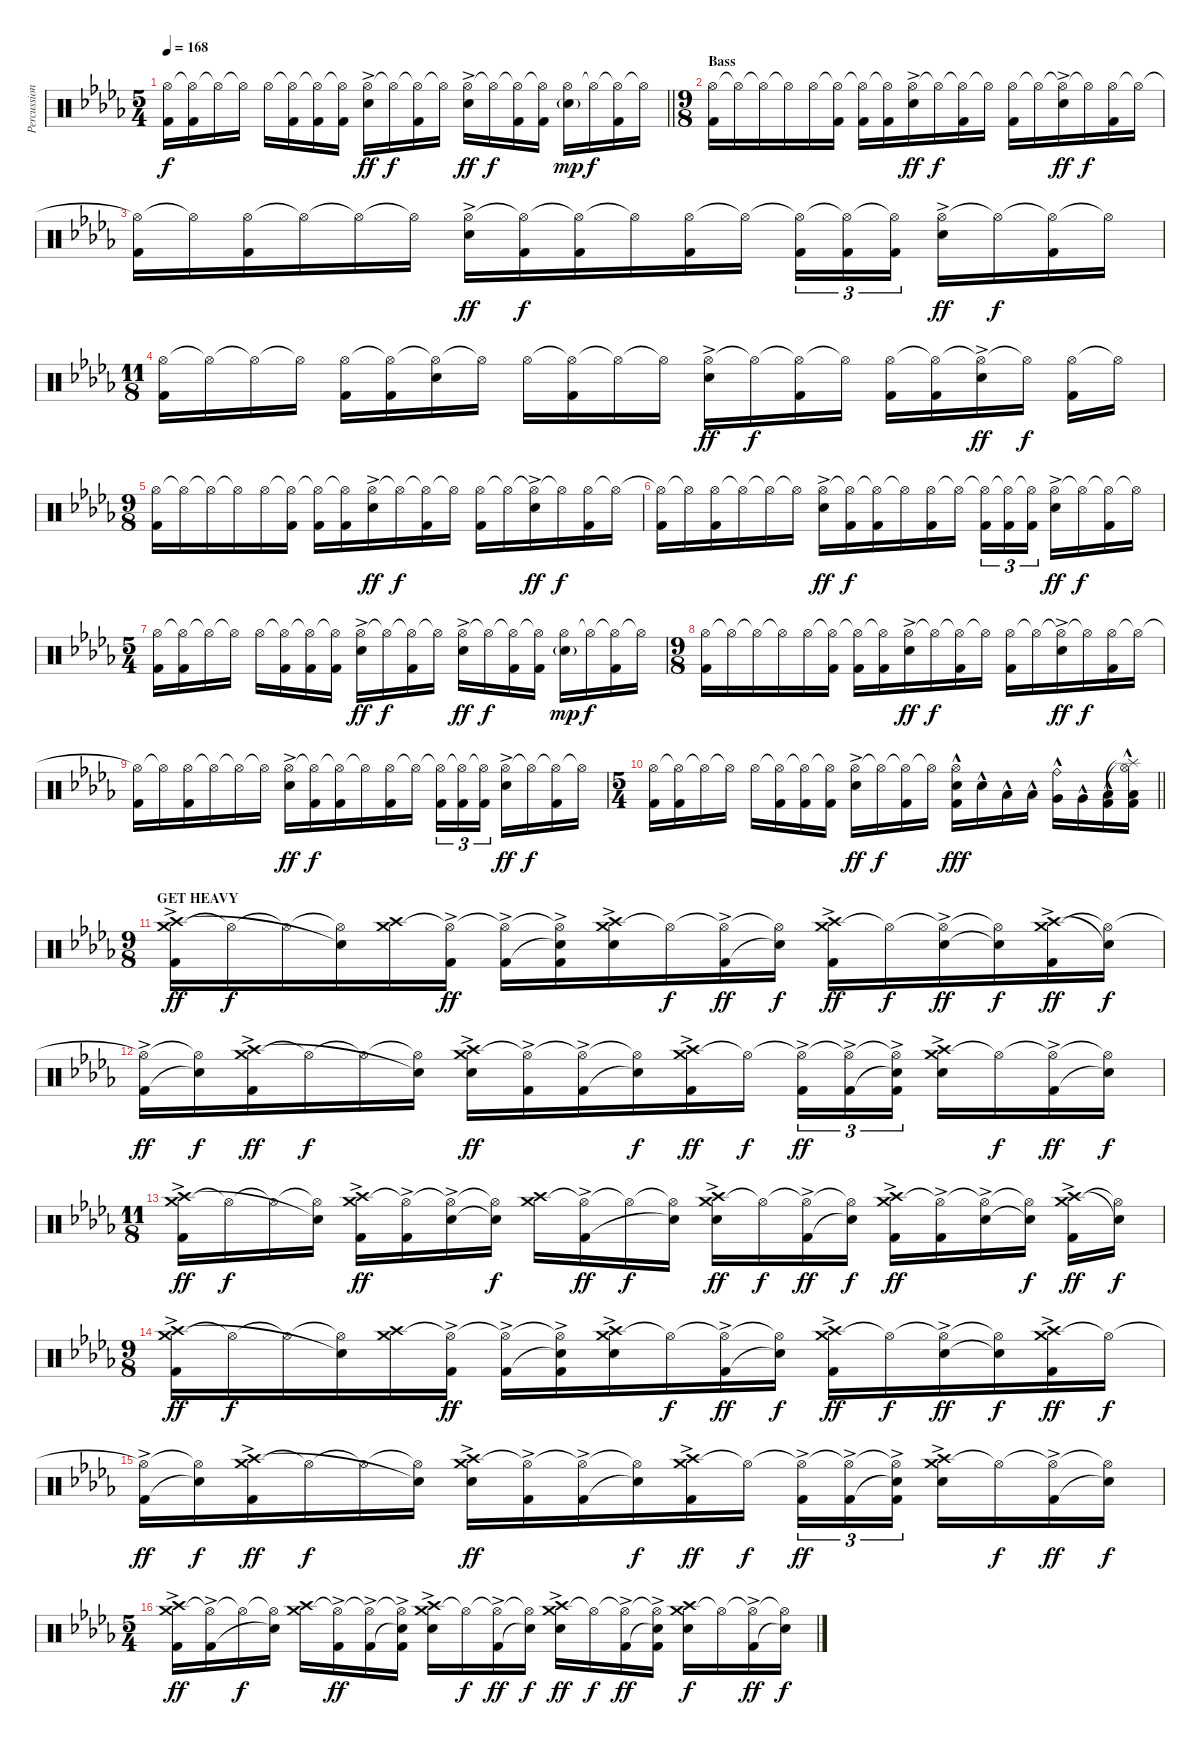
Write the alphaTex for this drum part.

\track ("Percussion" "Percussion") {instrument percussion}
\staff {score}
\articulation defaults
\ts (5 4)
\tempo 168
\clef neutral
\barLineRight lightlight
\ks bbminor
("Hi-Hat (open)" "Kick (hit) 2").16{dy f} ("Hi-Hat (open)"{t} "Kick (hit) 2").16 "Hi-Hat (open)"{t}.16 "Hi-Hat (open)"{t}.16 "Hi-Hat (open)".16 ("Hi-Hat (open)"{t} "Kick (hit) 2").16 ("Hi-Hat (open)"{t} "Kick (hit) 2").16 ("Hi-Hat (open)"{t} "Kick (hit) 2").16 ("Hi-Hat (open)" "Snare (hit) 2"{ac}).16{dy ff} "Hi-Hat (open)"{t}.16{dy f} ("Hi-Hat (open)"{t} "Kick (hit) 2").16 "Hi-Hat (open)"{t}.16 ("Hi-Hat (open)" "Snare (hit) 2"{ac}).16{dy ff} "Hi-Hat (open)"{t}.16{dy f} ("Hi-Hat (open)"{t} "Kick (hit) 2").16 ("Hi-Hat (open)"{t} "Kick (hit) 2").16 ("Hi-Hat (open)" "Snare (hit) 2"{g}).16{dy mp} "Hi-Hat (open)"{t}.16{dy f} ("Hi-Hat (open)"{t} "Kick (hit) 2").16 "Hi-Hat (open)"{t}.16 |
\ts (9 8)
\section ("" "Bass")
("Hi-Hat (open)" "Kick (hit) 2").16 "Hi-Hat (open)"{t}.16 "Hi-Hat (open)"{t}.16 "Hi-Hat (open)"{t}.16 "Hi-Hat (open)".16 ("Hi-Hat (open)"{t} "Kick (hit) 2").16 ("Hi-Hat (open)"{t} "Kick (hit) 2").16 ("Hi-Hat (open)"{t} "Kick (hit) 2").16 ("Hi-Hat (open)" "Snare (hit) 2"{ac}).16{dy ff} "Hi-Hat (open)"{t}.16{dy f} ("Hi-Hat (open)"{t} "Kick (hit) 2").16 "Hi-Hat (open)"{t}.16 ("Hi-Hat (open)" "Kick (hit) 2").16 "Hi-Hat (open)"{t}.16 ("Hi-Hat (open)"{t} "Snare (hit) 2"{ac}).16{dy ff} "Hi-Hat (open)"{t}.16{dy f} ("Hi-Hat (open)" "Kick (hit) 2").16 "Hi-Hat (open)"{t}.16 |
("Hi-Hat (open)"{t} "Kick (hit) 2").16 "Hi-Hat (open)"{t}.16 ("Hi-Hat (open)" "Kick (hit) 2").16 "Hi-Hat (open)"{t}.16 "Hi-Hat (open)"{t}.16 "Hi-Hat (open)"{t}.16 ("Hi-Hat (open)" "Snare (hit) 2"{ac}).16{dy ff} ("Hi-Hat (open)"{t} "Kick (hit) 2").16{dy f} ("Hi-Hat (open)"{t} "Kick (hit) 2").16 "Hi-Hat (open)"{t}.16 ("Hi-Hat (open)" "Kick (hit) 2").16 "Hi-Hat (open)"{t}.16 ("Hi-Hat (open)"{t} "Kick (hit) 2").16{tu (3 2)} ("Hi-Hat (open)"{t} "Kick (hit) 2").16{tu (3 2)} ("Hi-Hat (open)"{t} "Kick (hit) 2").16{tu (3 2) beam splitsecondary} ("Hi-Hat (open)" "Snare (hit) 2"{ac}).16{dy ff} "Hi-Hat (open)"{t}.16{dy f} ("Hi-Hat (open)"{t} "Kick (hit) 2").16 "Hi-Hat (open)"{t}.16 |
\ts (11 8)
("Hi-Hat (open)" "Kick (hit) 2").16 "Hi-Hat (open)"{t}.16 "Hi-Hat (open)"{t}.16 "Hi-Hat (open)"{t}.16 ("Hi-Hat (open)" "Kick (hit) 2").16 ("Hi-Hat (open)"{t} "Kick (hit) 2").16 ("Hi-Hat (open)"{t} "Snare (hit) 2").16 "Hi-Hat (open)"{t}.16 "Hi-Hat (open)".16 ("Hi-Hat (open)"{t} "Kick (hit) 2").16 "Hi-Hat (open)"{t}.16 "Hi-Hat (open)"{t}.16 ("Hi-Hat (open)" "Snare (hit) 2"{ac}).16{dy ff} "Hi-Hat (open)"{t}.16{dy f} ("Hi-Hat (open)"{t} "Kick (hit) 2").16 "Hi-Hat (open)"{t}.16 ("Hi-Hat (open)" "Kick (hit) 2").16 ("Hi-Hat (open)"{t} "Kick (hit) 2").16 ("Hi-Hat (open)"{t} "Snare (hit) 2"{ac}).16{dy ff} "Hi-Hat (open)"{t}.16{dy f} ("Hi-Hat (open)" "Kick (hit) 2").16 "Hi-Hat (open)"{t}.16 |
\ts (9 8)
("Hi-Hat (open)" "Kick (hit) 2").16 "Hi-Hat (open)"{t}.16 "Hi-Hat (open)"{t}.16 "Hi-Hat (open)"{t}.16 "Hi-Hat (open)".16 ("Hi-Hat (open)"{t} "Kick (hit) 2").16 ("Hi-Hat (open)"{t} "Kick (hit) 2").16 ("Hi-Hat (open)"{t} "Kick (hit) 2").16 ("Hi-Hat (open)" "Snare (hit) 2"{ac}).16{dy ff} "Hi-Hat (open)"{t}.16{dy f} ("Hi-Hat (open)"{t} "Kick (hit) 2").16 "Hi-Hat (open)"{t}.16 ("Hi-Hat (open)" "Kick (hit) 2").16 "Hi-Hat (open)"{t}.16 ("Hi-Hat (open)"{t} "Snare (hit) 2"{ac}).16{dy ff} "Hi-Hat (open)"{t}.16{dy f} ("Hi-Hat (open)" "Kick (hit) 2").16 "Hi-Hat (open)"{t}.16 |
("Hi-Hat (open)"{t} "Kick (hit) 2").16 "Hi-Hat (open)"{t}.16 ("Hi-Hat (open)" "Kick (hit) 2").16 "Hi-Hat (open)"{t}.16 "Hi-Hat (open)"{t}.16 "Hi-Hat (open)"{t}.16 ("Hi-Hat (open)" "Snare (hit) 2"{ac}).16{dy ff} ("Hi-Hat (open)"{t} "Kick (hit) 2").16{dy f} ("Hi-Hat (open)"{t} "Kick (hit) 2").16 "Hi-Hat (open)"{t}.16 ("Hi-Hat (open)" "Kick (hit) 2").16 "Hi-Hat (open)"{t}.16 ("Hi-Hat (open)"{t} "Kick (hit) 2").16{tu (3 2)} ("Hi-Hat (open)"{t} "Kick (hit) 2").16{tu (3 2)} ("Hi-Hat (open)"{t} "Kick (hit) 2").16{tu (3 2) beam splitsecondary} ("Hi-Hat (open)" "Snare (hit) 2"{ac}).16{dy ff} "Hi-Hat (open)"{t}.16{dy f} ("Hi-Hat (open)"{t} "Kick (hit) 2").16 "Hi-Hat (open)"{t}.16 |
\ts (5 4)
("Hi-Hat (open)" "Kick (hit) 2").16 ("Hi-Hat (open)"{t} "Kick (hit) 2").16 "Hi-Hat (open)"{t}.16 "Hi-Hat (open)"{t}.16 "Hi-Hat (open)".16 ("Hi-Hat (open)"{t} "Kick (hit) 2").16 ("Hi-Hat (open)"{t} "Kick (hit) 2").16 ("Hi-Hat (open)"{t} "Kick (hit) 2").16 ("Hi-Hat (open)" "Snare (hit) 2"{ac}).16{dy ff} "Hi-Hat (open)"{t}.16{dy f} ("Hi-Hat (open)"{t} "Kick (hit) 2").16 "Hi-Hat (open)"{t}.16 ("Hi-Hat (open)" "Snare (hit) 2"{ac}).16{dy ff} "Hi-Hat (open)"{t}.16{dy f} ("Hi-Hat (open)"{t} "Kick (hit) 2").16 ("Hi-Hat (open)"{t} "Kick (hit) 2").16 ("Hi-Hat (open)" "Snare (hit) 2"{g}).16{dy mp} "Hi-Hat (open)"{t}.16{dy f} ("Hi-Hat (open)"{t} "Kick (hit) 2").16 "Hi-Hat (open)"{t}.16 |
\ts (9 8)
("Hi-Hat (open)" "Kick (hit) 2").16 "Hi-Hat (open)"{t}.16 "Hi-Hat (open)"{t}.16 "Hi-Hat (open)"{t}.16 "Hi-Hat (open)".16 ("Hi-Hat (open)"{t} "Kick (hit) 2").16 ("Hi-Hat (open)"{t} "Kick (hit) 2").16 ("Hi-Hat (open)"{t} "Kick (hit) 2").16 ("Hi-Hat (open)" "Snare (hit) 2"{ac}).16{dy ff} "Hi-Hat (open)"{t}.16{dy f} ("Hi-Hat (open)"{t} "Kick (hit) 2").16 "Hi-Hat (open)"{t}.16 ("Hi-Hat (open)" "Kick (hit) 2").16 "Hi-Hat (open)"{t}.16 ("Hi-Hat (open)"{t} "Snare (hit) 2"{ac}).16{dy ff} "Hi-Hat (open)"{t}.16{dy f} ("Hi-Hat (open)" "Kick (hit) 2").16 "Hi-Hat (open)"{t}.16 |
("Hi-Hat (open)"{t} "Kick (hit) 2").16 "Hi-Hat (open)"{t}.16 ("Hi-Hat (open)" "Kick (hit) 2").16 "Hi-Hat (open)"{t}.16 "Hi-Hat (open)"{t}.16 "Hi-Hat (open)"{t}.16 ("Hi-Hat (open)" "Snare (hit) 2"{ac}).16{dy ff} ("Hi-Hat (open)"{t} "Kick (hit) 2").16{dy f} ("Hi-Hat (open)"{t} "Kick (hit) 2").16 "Hi-Hat (open)"{t}.16 ("Hi-Hat (open)" "Kick (hit) 2").16 "Hi-Hat (open)"{t}.16 ("Hi-Hat (open)"{t} "Kick (hit) 2").16{tu (3 2)} ("Hi-Hat (open)"{t} "Kick (hit) 2").16{tu (3 2)} ("Hi-Hat (open)"{t} "Kick (hit) 2").16{tu (3 2) beam splitsecondary} ("Hi-Hat (open)" "Snare (hit) 2"{ac}).16{dy ff} "Hi-Hat (open)"{t}.16{dy f} ("Hi-Hat (open)"{t} "Kick (hit) 2").16 "Hi-Hat (open)"{t}.16 |
\ts (5 4)
\barLineRight lightlight
("Hi-Hat (open)" "Kick (hit) 2").16 ("Hi-Hat (open)"{t} "Kick (hit) 2").16 "Hi-Hat (open)"{t}.16 "Hi-Hat (open)"{t}.16 "Hi-Hat (open)".16 ("Hi-Hat (open)"{t} "Kick (hit) 2").16 ("Hi-Hat (open)"{t} "Kick (hit) 2").16 ("Hi-Hat (open)"{t} "Kick (hit) 2").16 ("Hi-Hat (open)" "Snare (hit) 2"{ac}).16{dy ff} "Hi-Hat (open)"{t}.16{dy f} ("Hi-Hat (open)"{t} "Kick (hit) 2").16 "Hi-Hat (open)"{t}.16 ("Hi-Hat (open)"{hac} "Snare (hit) 2"{hac} "Kick (hit) 2"{hac}).16{dy fff volume 13} "Snare (hit) 2"{hac}.16 "Low Tom (hit)"{hac}.16 "Low Tom (hit)"{hac}.16 ("Ride (bell)"{hac} "Very Low Tom (hit)"{hac}).16 "Very Low Tom (hit)"{hac}.16 ("Kick (hit) 2"{hac} "Low Floor Tom (hit)"{hac}).16 ("Hi-Hat (open)"{t} "Splash (hit)"{t} "Kick (hit) 2"{hac} "Low Floor Tom (hit)"{hac}).16 |
\ts (9 8)
\section ("" "GET HEAVY")
("Crash medium (hit)" "Crash high (hit)" "Kick (hit) 2"{ac}).16{dy ff} "Hi-Hat (open)"{t}.16{dy f} "Hi-Hat (open)"{t}.16 ("Hi-Hat (open)"{t} "Snare (hit)"{t}).16 ("Crash medium (hit)" "Crash high (hit)").16 ("Hi-Hat (open)"{t} "Kick (hit) 2"{ac}).16{dy ff} ("Hi-Hat (open)"{t} "Kick (hit) 2"{ac}).16 ("Hi-Hat (open)"{t} "Snare (hit)"{t} "Kick (hit) 2"{ac}).16 ("Crash medium (hit)" "Crash high (hit)" "Snare (hit) 2"{ac}).16 "Hi-Hat (open)"{t}.16{dy f} ("Hi-Hat (open)"{t} "Kick (hit) 2"{ac}).16{dy ff} ("Hi-Hat (open)"{t} "Snare (hit)"{t}).16{dy f} ("Crash medium (hit)" "Crash high (hit)" "Kick (hit) 2"{ac}).16{dy ff} "Hi-Hat (open)"{t}.16{dy f} ("Hi-Hat (open)"{t} "Snare (hit) 2"{ac}).16{dy ff} ("Hi-Hat (open)"{t} "Snare (hit)"{t}).16{dy f} ("Crash medium (hit)" "Crash high (hit)" "Kick (hit) 2"{ac}).16{dy ff} ("Hi-Hat (open)"{t} "Snare (hit)"{t}).16{dy f} |
("Hi-Hat (open)"{t} "Kick (hit) 2"{ac}).16{dy ff} ("Hi-Hat (open)"{t} "Snare (hit)"{t}).16{dy f} ("Crash medium (hit)" "Crash high (hit)" "Kick (hit) 2"{ac}).16{dy ff} "Hi-Hat (open)"{t}.16{dy f} "Hi-Hat (open)"{t}.16 ("Hi-Hat (open)"{t} "Snare (hit)"{t}).16 ("Crash medium (hit)" "Crash high (hit)" "Snare (hit) 2"{ac}).16{dy ff} ("Hi-Hat (open)"{t} "Kick (hit) 2"{ac}).16 ("Hi-Hat (open)"{t} "Kick (hit) 2"{ac}).16 ("Hi-Hat (open)"{t} "Snare (hit)"{t}).16{dy f} ("Crash medium (hit)" "Crash high (hit)" "Kick (hit) 2"{ac}).16{dy ff} "Hi-Hat (open)"{t}.16{dy f} ("Hi-Hat (open)"{t} "Kick (hit) 2"{ac}).16{tu (3 2) dy ff} ("Hi-Hat (open)"{t} "Kick (hit) 2"{ac}).16{tu (3 2)} ("Hi-Hat (open)"{t} "Snare (hit)"{t} "Kick (hit) 2"{ac}).16{tu (3 2) beam splitsecondary} ("Crash medium (hit)" "Crash high (hit)" "Snare (hit) 2"{ac}).16 "Hi-Hat (open)"{t}.16{dy f} ("Hi-Hat (open)"{t} "Kick (hit) 2"{ac}).16{dy ff} ("Hi-Hat (open)"{t} "Snare (hit)"{t}).16{dy f} |
\ts (11 8)
("Crash medium (hit)" "Crash high (hit)" "Kick (hit) 2"{ac}).16{dy ff} "Hi-Hat (open)"{t}.16{dy f} "Hi-Hat (open)"{t}.16 ("Hi-Hat (open)"{t} "Snare (hit)"{t}).16 ("Crash medium (hit)" "Crash high (hit)" "Kick (hit) 2"{ac}).16{dy ff} ("Hi-Hat (open)"{t} "Kick (hit) 2"{ac}).16 ("Hi-Hat (open)"{t} "Snare (hit) 2"{ac}).16 ("Hi-Hat (open)"{t} "Snare (hit)"{t}).16{dy f} ("Crash medium (hit)" "Crash high (hit)").16 ("Hi-Hat (open)"{t} "Kick (hit) 2"{ac}).16{dy ff} "Hi-Hat (open)"{t}.16{dy f} ("Hi-Hat (open)"{t} "Snare (hit)"{t}).16 ("Crash medium (hit)" "Crash high (hit)" "Snare (hit) 2"{ac}).16{dy ff} "Hi-Hat (open)"{t}.16{dy f} ("Hi-Hat (open)"{t} "Kick (hit) 2"{ac}).16{dy ff} ("Hi-Hat (open)"{t} "Snare (hit)"{t}).16{dy f} ("Crash medium (hit)" "Crash high (hit)" "Kick (hit) 2"{ac}).16{dy ff} ("Hi-Hat (open)"{t} "Kick (hit) 2"{ac}).16 ("Hi-Hat (open)"{t} "Snare (hit) 2"{ac}).16 ("Hi-Hat (open)"{t} "Snare (hit)"{t}).16{dy f} ("Crash medium (hit)" "Crash high (hit)" "Kick (hit) 2"{ac}).16{dy ff} ("Hi-Hat (open)"{t} "Snare (hit)"{t}).16{dy f} |
\ts (9 8)
("Crash medium (hit)" "Crash high (hit)" "Kick (hit) 2"{ac}).16{dy ff} "Hi-Hat (open)"{t}.16{dy f} "Hi-Hat (open)"{t}.16 ("Hi-Hat (open)"{t} "Snare (hit)"{t}).16 ("Crash medium (hit)" "Crash high (hit)").16 ("Hi-Hat (open)"{t} "Kick (hit) 2"{ac}).16{dy ff} ("Hi-Hat (open)"{t} "Kick (hit) 2"{ac}).16 ("Hi-Hat (open)"{t} "Snare (hit)"{t} "Kick (hit) 2"{ac}).16 ("Crash medium (hit)" "Crash high (hit)" "Snare (hit) 2"{ac}).16 "Hi-Hat (open)"{t}.16{dy f} ("Hi-Hat (open)"{t} "Kick (hit) 2"{ac}).16{dy ff} ("Hi-Hat (open)"{t} "Snare (hit)"{t}).16{dy f} ("Crash medium (hit)" "Crash high (hit)" "Kick (hit) 2"{ac}).16{dy ff} "Hi-Hat (open)"{t}.16{dy f} ("Hi-Hat (open)"{t} "Snare (hit) 2"{ac}).16{dy ff} ("Hi-Hat (open)"{t} "Snare (hit)"{t}).16{dy f} ("Crash medium (hit)" "Crash high (hit)" "Kick (hit) 2"{ac}).16{dy ff} "Hi-Hat (open)"{t}.16{dy f} |
("Hi-Hat (open)"{t} "Kick (hit) 2"{ac}).16{dy ff} ("Hi-Hat (open)"{t} "Snare (hit)"{t}).16{dy f} ("Crash medium (hit)" "Crash high (hit)" "Kick (hit) 2"{ac}).16{dy ff} "Hi-Hat (open)"{t}.16{dy f} "Hi-Hat (open)"{t}.16 ("Hi-Hat (open)"{t} "Snare (hit)"{t}).16 ("Crash medium (hit)" "Crash high (hit)" "Snare (hit) 2"{ac}).16{dy ff} ("Hi-Hat (open)"{t} "Kick (hit) 2"{ac}).16 ("Hi-Hat (open)"{t} "Kick (hit) 2"{ac}).16 ("Hi-Hat (open)"{t} "Snare (hit)"{t}).16{dy f} ("Crash medium (hit)" "Crash high (hit)" "Kick (hit) 2"{ac}).16{dy ff} "Hi-Hat (open)"{t}.16{dy f} ("Hi-Hat (open)"{t} "Kick (hit) 2"{ac}).16{tu (3 2) dy ff} ("Hi-Hat (open)"{t} "Kick (hit) 2"{ac}).16{tu (3 2)} ("Hi-Hat (open)"{t} "Snare (hit)"{t} "Kick (hit) 2"{ac}).16{tu (3 2) beam splitsecondary} ("Crash medium (hit)" "Crash high (hit)" "Snare (hit) 2"{ac}).16 "Hi-Hat (open)"{t}.16{dy f} ("Hi-Hat (open)"{t} "Kick (hit) 2"{ac}).16{dy ff} ("Hi-Hat (open)"{t} "Snare (hit)"{t}).16{dy f} |
\ts (5 4)
("Crash medium (hit)" "Crash high (hit)" "Kick (hit) 2"{ac}).16{dy ff} ("Hi-Hat (open)"{t} "Kick (hit) 2"{ac}).16 "Hi-Hat (open)"{t}.16{dy f} ("Hi-Hat (open)"{t} "Snare (hit)"{t}).16 ("Crash medium (hit)" "Crash high (hit)").16 ("Hi-Hat (open)"{t} "Kick (hit) 2"{ac}).16{dy ff} ("Hi-Hat (open)"{t} "Kick (hit) 2"{ac}).16 ("Hi-Hat (open)"{t} "Snare (hit)"{t} "Kick (hit) 2"{ac}).16 ("Crash medium (hit)" "Crash high (hit)" "Snare (hit) 2"{ac}).16 "Hi-Hat (open)"{t}.16{dy f} ("Hi-Hat (open)"{t} "Kick (hit) 2"{ac}).16{dy ff} ("Hi-Hat (open)"{t} "Snare (hit)"{t}).16{dy f} ("Crash medium (hit)" "Crash high (hit)" "Snare (hit) 2"{ac}).16{dy ff} "Hi-Hat (open)"{t}.16{dy f} ("Hi-Hat (open)"{t} "Kick (hit) 2"{ac}).16{dy ff} ("Hi-Hat (open)"{t} "Snare (hit)"{t} "Kick (hit) 2"{ac}).16 ("Crash medium (hit)" "Crash high (hit)" "Snare (hit) 2").16{dy f} "Hi-Hat (open)"{t}.16 ("Hi-Hat (open)"{t} "Kick (hit) 2"{ac}).16{dy ff} ("Hi-Hat (open)"{t} "Snare (hit)"{t}).16{dy f}
